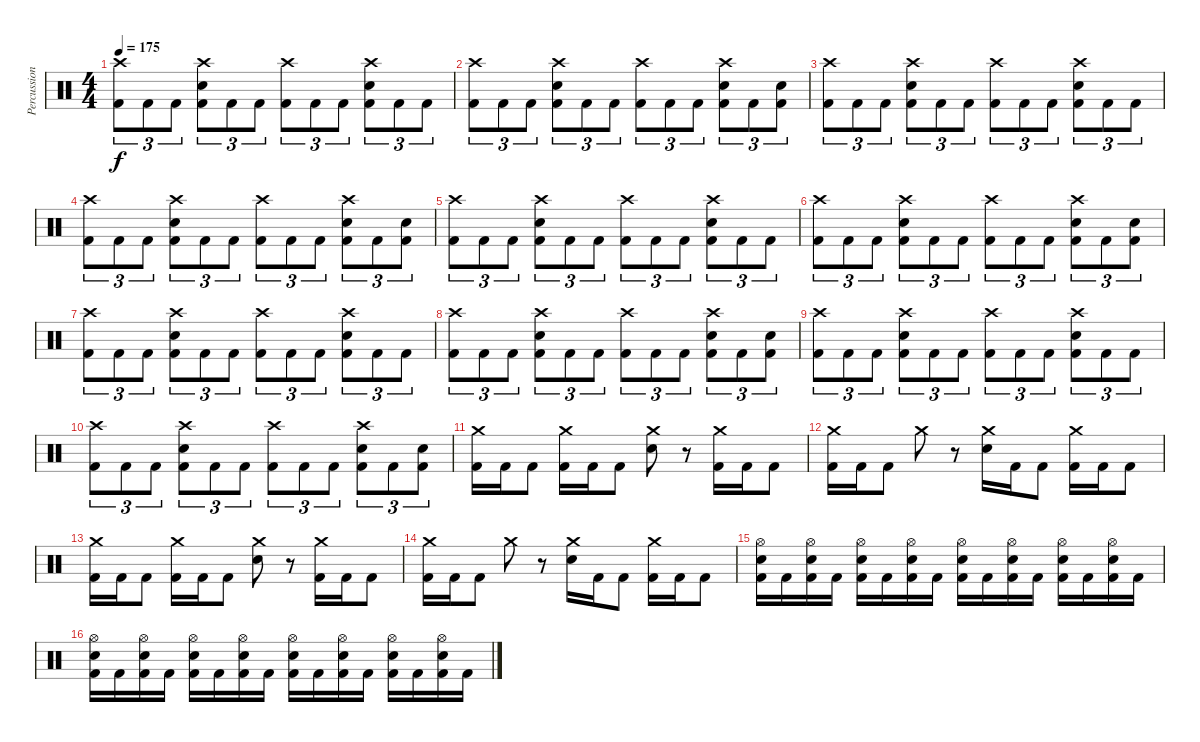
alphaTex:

\track ("Percussion" "Percussion") {instrument percussion}
\staff {score}
\articulation defaults
\ts (4 4)
\tempo 175
\clef neutral
\ks c
("Crash high (hit)" "Kick (hit) 2").8{tu (3 2) dy f} "Kick (hit) 2".8{tu (3 2)} "Kick (hit) 2".8{tu (3 2)} ("Crash high (hit)" "Electric Snare (hit)" "Kick (hit) 2").8{tu (3 2)} "Kick (hit) 2".8{tu (3 2)} "Kick (hit) 2".8{tu (3 2)} ("Crash high (hit)" "Kick (hit) 2").8{tu (3 2)} "Kick (hit) 2".8{tu (3 2)} "Kick (hit) 2".8{tu (3 2)} ("Crash high (hit)" "Electric Snare (hit)" "Kick (hit) 2").8{tu (3 2)} "Kick (hit) 2".8{tu (3 2)} "Kick (hit) 2".8{tu (3 2)} |
("Crash high (hit)" "Kick (hit) 2").8{tu (3 2)} "Kick (hit) 2".8{tu (3 2)} "Kick (hit) 2".8{tu (3 2)} ("Crash high (hit)" "Electric Snare (hit)" "Kick (hit) 2").8{tu (3 2)} "Kick (hit) 2".8{tu (3 2)} "Kick (hit) 2".8{tu (3 2)} ("Crash high (hit)" "Kick (hit) 2").8{tu (3 2)} "Kick (hit) 2".8{tu (3 2)} "Kick (hit) 2".8{tu (3 2)} ("Crash high (hit)" "Electric Snare (hit)" "Kick (hit) 2").8{tu (3 2)} "Kick (hit) 2".8{tu (3 2)} ("Electric Snare (hit)" "Kick (hit) 2").8{tu (3 2)} |
("Crash high (hit)" "Kick (hit) 2").8{tu (3 2)} "Kick (hit) 2".8{tu (3 2)} "Kick (hit) 2".8{tu (3 2)} ("Crash high (hit)" "Electric Snare (hit)" "Kick (hit) 2").8{tu (3 2)} "Kick (hit) 2".8{tu (3 2)} "Kick (hit) 2".8{tu (3 2)} ("Crash high (hit)" "Kick (hit) 2").8{tu (3 2)} "Kick (hit) 2".8{tu (3 2)} "Kick (hit) 2".8{tu (3 2)} ("Crash high (hit)" "Electric Snare (hit)" "Kick (hit) 2").8{tu (3 2)} "Kick (hit) 2".8{tu (3 2)} "Kick (hit) 2".8{tu (3 2)} |
("Crash high (hit)" "Kick (hit) 2").8{tu (3 2)} "Kick (hit) 2".8{tu (3 2)} "Kick (hit) 2".8{tu (3 2)} ("Crash high (hit)" "Electric Snare (hit)" "Kick (hit) 2").8{tu (3 2)} "Kick (hit) 2".8{tu (3 2)} "Kick (hit) 2".8{tu (3 2)} ("Crash high (hit)" "Kick (hit) 2").8{tu (3 2)} "Kick (hit) 2".8{tu (3 2)} "Kick (hit) 2".8{tu (3 2)} ("Crash high (hit)" "Electric Snare (hit)" "Kick (hit) 2").8{tu (3 2)} "Kick (hit) 2".8{tu (3 2)} ("Electric Snare (hit)" "Kick (hit) 2").8{tu (3 2)} |
("Crash high (hit)" "Kick (hit) 2").8{tu (3 2)} "Kick (hit) 2".8{tu (3 2)} "Kick (hit) 2".8{tu (3 2)} ("Crash high (hit)" "Electric Snare (hit)" "Kick (hit) 2").8{tu (3 2)} "Kick (hit) 2".8{tu (3 2)} "Kick (hit) 2".8{tu (3 2)} ("Crash high (hit)" "Kick (hit) 2").8{tu (3 2)} "Kick (hit) 2".8{tu (3 2)} "Kick (hit) 2".8{tu (3 2)} ("Crash high (hit)" "Electric Snare (hit)" "Kick (hit) 2").8{tu (3 2)} "Kick (hit) 2".8{tu (3 2)} "Kick (hit) 2".8{tu (3 2)} |
("Crash high (hit)" "Kick (hit) 2").8{tu (3 2)} "Kick (hit) 2".8{tu (3 2)} "Kick (hit) 2".8{tu (3 2)} ("Crash high (hit)" "Electric Snare (hit)" "Kick (hit) 2").8{tu (3 2)} "Kick (hit) 2".8{tu (3 2)} "Kick (hit) 2".8{tu (3 2)} ("Crash high (hit)" "Kick (hit) 2").8{tu (3 2)} "Kick (hit) 2".8{tu (3 2)} "Kick (hit) 2".8{tu (3 2)} ("Crash high (hit)" "Electric Snare (hit)" "Kick (hit) 2").8{tu (3 2)} "Kick (hit) 2".8{tu (3 2)} ("Electric Snare (hit)" "Kick (hit) 2").8{tu (3 2)} |
("Crash high (hit)" "Kick (hit) 2").8{tu (3 2)} "Kick (hit) 2".8{tu (3 2)} "Kick (hit) 2".8{tu (3 2)} ("Crash high (hit)" "Electric Snare (hit)" "Kick (hit) 2").8{tu (3 2)} "Kick (hit) 2".8{tu (3 2)} "Kick (hit) 2".8{tu (3 2)} ("Crash high (hit)" "Kick (hit) 2").8{tu (3 2)} "Kick (hit) 2".8{tu (3 2)} "Kick (hit) 2".8{tu (3 2)} ("Crash high (hit)" "Electric Snare (hit)" "Kick (hit) 2").8{tu (3 2)} "Kick (hit) 2".8{tu (3 2)} "Kick (hit) 2".8{tu (3 2)} |
("Crash high (hit)" "Kick (hit) 2").8{tu (3 2)} "Kick (hit) 2".8{tu (3 2)} "Kick (hit) 2".8{tu (3 2)} ("Crash high (hit)" "Electric Snare (hit)" "Kick (hit) 2").8{tu (3 2)} "Kick (hit) 2".8{tu (3 2)} "Kick (hit) 2".8{tu (3 2)} ("Crash high (hit)" "Kick (hit) 2").8{tu (3 2)} "Kick (hit) 2".8{tu (3 2)} "Kick (hit) 2".8{tu (3 2)} ("Crash high (hit)" "Electric Snare (hit)" "Kick (hit) 2").8{tu (3 2)} "Kick (hit) 2".8{tu (3 2)} ("Electric Snare (hit)" "Kick (hit) 2").8{tu (3 2)} |
("Crash high (hit)" "Kick (hit) 2").8{tu (3 2)} "Kick (hit) 2".8{tu (3 2)} "Kick (hit) 2".8{tu (3 2)} ("Crash high (hit)" "Electric Snare (hit)" "Kick (hit) 2").8{tu (3 2)} "Kick (hit) 2".8{tu (3 2)} "Kick (hit) 2".8{tu (3 2)} ("Crash high (hit)" "Kick (hit) 2").8{tu (3 2)} "Kick (hit) 2".8{tu (3 2)} "Kick (hit) 2".8{tu (3 2)} ("Crash high (hit)" "Electric Snare (hit)" "Kick (hit) 2").8{tu (3 2)} "Kick (hit) 2".8{tu (3 2)} "Kick (hit) 2".8{tu (3 2)} |
("Crash high (hit)" "Kick (hit) 2").8{tu (3 2)} "Kick (hit) 2".8{tu (3 2)} "Kick (hit) 2".8{tu (3 2)} ("Crash high (hit)" "Electric Snare (hit)" "Kick (hit) 2").8{tu (3 2)} "Kick (hit) 2".8{tu (3 2)} "Kick (hit) 2".8{tu (3 2)} ("Crash high (hit)" "Kick (hit) 2").8{tu (3 2)} "Kick (hit) 2".8{tu (3 2)} "Kick (hit) 2".8{tu (3 2)} ("Crash high (hit)" "Electric Snare (hit)" "Kick (hit) 2").8{tu (3 2)} "Kick (hit) 2".8{tu (3 2)} ("Electric Snare (hit)" "Kick (hit) 2").8{tu (3 2)} |
("Crash medium (hit)" "Kick (hit) 2").16 "Kick (hit) 2".16 "Kick (hit) 2".8 ("Crash medium (hit)" "Kick (hit) 2").16 "Kick (hit) 2".16 "Kick (hit) 2".8 ("Crash medium (hit)" "Electric Snare (hit)").8 r.8 ("Crash medium (hit)" "Kick (hit) 2").16 "Kick (hit) 2".16 "Kick (hit) 2".8 |
("Crash medium (hit)" "Kick (hit) 2").16 "Kick (hit) 2".16 "Kick (hit) 2".8 "Crash medium (hit)".8 r.8 ("Crash medium (hit)" "Electric Snare (hit)").16 "Kick (hit) 2".16 "Kick (hit) 2".8 ("Crash medium (hit)" "Kick (hit) 2").16 "Kick (hit) 2".16 "Kick (hit) 2".8 |
("Crash medium (hit)" "Kick (hit) 2").16 "Kick (hit) 2".16 "Kick (hit) 2".8 ("Crash medium (hit)" "Kick (hit) 2").16 "Kick (hit) 2".16 "Kick (hit) 2".8 ("Crash medium (hit)" "Electric Snare (hit)").8 r.8 ("Crash medium (hit)" "Kick (hit) 2").16 "Kick (hit) 2".16 "Kick (hit) 2".8 |
("Crash medium (hit)" "Kick (hit) 2").16 "Kick (hit) 2".16 "Kick (hit) 2".8 "Crash medium (hit)".8 r.8 ("Crash medium (hit)" "Electric Snare (hit)").16 "Kick (hit) 2".16 "Kick (hit) 2".8 ("Crash medium (hit)" "Kick (hit) 2").16 "Kick (hit) 2".16 "Kick (hit) 2".8 |
("Hi-Hat (open)" "Electric Snare (hit)" "Kick (hit) 2").16 "Kick (hit) 2".16 ("Hi-Hat (open)" "Electric Snare (hit)" "Kick (hit) 2").16 "Kick (hit) 2".16 ("Hi-Hat (open)" "Electric Snare (hit)" "Kick (hit) 2").16 "Kick (hit) 2".16 ("Hi-Hat (open)" "Electric Snare (hit)" "Kick (hit) 2").16 "Kick (hit) 2".16 ("Hi-Hat (open)" "Electric Snare (hit)" "Kick (hit) 2").16 "Kick (hit) 2".16 ("Hi-Hat (open)" "Electric Snare (hit)" "Kick (hit) 2").16 "Kick (hit) 2".16 ("Hi-Hat (open)" "Electric Snare (hit)" "Kick (hit) 2").16 "Kick (hit) 2".16 ("Hi-Hat (open)" "Electric Snare (hit)" "Kick (hit) 2").16 "Kick (hit) 2".16 |
("Hi-Hat (open)" "Electric Snare (hit)" "Kick (hit) 2").16 "Kick (hit) 2".16 ("Hi-Hat (open)" "Electric Snare (hit)" "Kick (hit) 2").16 "Kick (hit) 2".16 ("Hi-Hat (open)" "Electric Snare (hit)" "Kick (hit) 2").16 "Kick (hit) 2".16 ("Hi-Hat (open)" "Electric Snare (hit)" "Kick (hit) 2").16 "Kick (hit) 2".16 ("Hi-Hat (open)" "Electric Snare (hit)" "Kick (hit) 2").16 "Kick (hit) 2".16 ("Hi-Hat (open)" "Electric Snare (hit)" "Kick (hit) 2").16 "Kick (hit) 2".16 ("Hi-Hat (open)" "Electric Snare (hit)" "Kick (hit) 2").16 "Kick (hit) 2".16 ("Hi-Hat (open)" "Electric Snare (hit)" "Kick (hit) 2").16 "Kick (hit) 2".16
